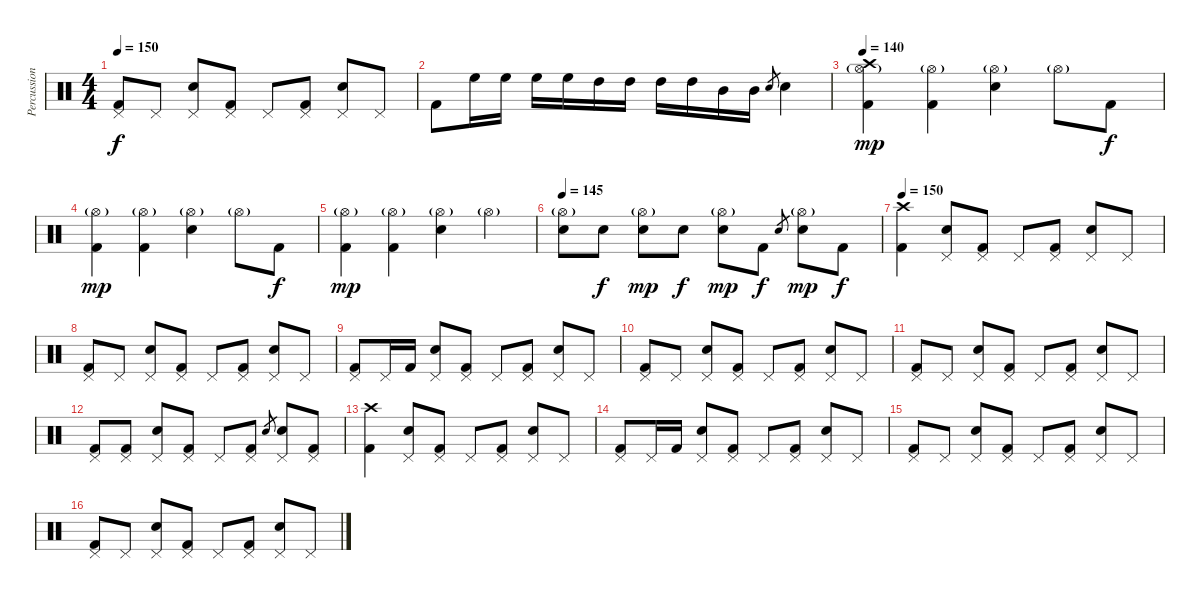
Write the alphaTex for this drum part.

\track ("Percussion" "Percussion") {instrument percussion}
\staff {score}
\articulation defaults
\ts (4 4)
\tempo 150
\clef neutral
\ks c
("Pedal Hi-Hat (hit)" "Kick (hit) 2").8{dy f} "Pedal Hi-Hat (hit)".8 ("Pedal Hi-Hat (hit)" "Snare (hit) 2").8 ("Pedal Hi-Hat (hit)" "Kick (hit) 2").8 "Pedal Hi-Hat (hit)".8 ("Pedal Hi-Hat (hit)" "Kick (hit) 2").8 ("Pedal Hi-Hat (hit)" "Snare (hit) 2").8 "Pedal Hi-Hat (hit)".8 |
"Kick (hit) 2".8 "High Floor Tom (hit)".16 "High Floor Tom (hit)".16 "High Floor Tom (hit)".16 "High Floor Tom (hit)".16 "High Tom (hit)".16 "High Tom (hit)".16 "High Tom (hit)".16 "High Tom (hit)".16 "Mid Tom (hit)".16 "Mid Tom (hit)".16 "Snare (hit) 2".8{gr} "Snare (hit) 2".4 |
\tempo 140
("Hi-Hat (open)"{g} "Crash high (hit)" "Kick (hit) 2").4{dy mp} ("Hi-Hat (open)"{g} "Kick (hit) 2").4 ("Hi-Hat (open)"{g} "Snare (hit) 2").4 "Hi-Hat (open)"{g}.8 "Kick (hit) 2".8{dy f} |
("Hi-Hat (open)"{g} "Kick (hit) 2").4{dy mp} ("Hi-Hat (open)"{g} "Kick (hit) 2").4 ("Hi-Hat (open)"{g} "Snare (hit) 2").4 "Hi-Hat (open)"{g}.8 "Kick (hit) 2".8{dy f} |
("Hi-Hat (open)"{g} "Kick (hit) 2").4{dy mp} ("Hi-Hat (open)"{g} "Kick (hit) 2").4 ("Hi-Hat (open)"{g} "Snare (hit) 2").4 "Hi-Hat (open)"{g}.4 |
\tempo 145
("Hi-Hat (open)"{g} "Snare (hit) 2").8 "Snare (hit) 2".8{dy f} ("Hi-Hat (open)"{g} "Snare (hit) 2").8{dy mp} "Snare (hit) 2".8{dy f} ("Hi-Hat (open)"{g} "Snare (hit) 2").8{dy mp} "Kick (hit) 2".8{dy f} "Snare (hit) 2".8{gr} ("Hi-Hat (open)"{g} "Snare (hit) 2").8{dy mp} "Kick (hit) 2".8{dy f} |
\tempo 150
("Crash high (hit)" "Kick (hit) 2").4 ("Pedal Hi-Hat (hit)" "Snare (hit) 2").8 ("Pedal Hi-Hat (hit)" "Kick (hit) 2").8 "Pedal Hi-Hat (hit)".8 ("Pedal Hi-Hat (hit)" "Kick (hit) 2").8 ("Pedal Hi-Hat (hit)" "Snare (hit) 2").8 "Pedal Hi-Hat (hit)".8 |
("Pedal Hi-Hat (hit)" "Kick (hit) 2").8 "Pedal Hi-Hat (hit)".8 ("Pedal Hi-Hat (hit)" "Snare (hit) 2").8 ("Pedal Hi-Hat (hit)" "Kick (hit) 2").8 "Pedal Hi-Hat (hit)".8 ("Pedal Hi-Hat (hit)" "Kick (hit) 2").8 ("Pedal Hi-Hat (hit)" "Snare (hit) 2").8 "Pedal Hi-Hat (hit)".8 |
("Pedal Hi-Hat (hit)" "Kick (hit) 2").8 "Pedal Hi-Hat (hit)".16 "Kick (hit) 2".16 ("Pedal Hi-Hat (hit)" "Snare (hit) 2").8 ("Pedal Hi-Hat (hit)" "Kick (hit) 2").8 "Pedal Hi-Hat (hit)".8 ("Pedal Hi-Hat (hit)" "Kick (hit) 2").8 ("Pedal Hi-Hat (hit)" "Snare (hit) 2").8 "Pedal Hi-Hat (hit)".8 |
("Pedal Hi-Hat (hit)" "Kick (hit) 2").8 "Pedal Hi-Hat (hit)".8 ("Pedal Hi-Hat (hit)" "Snare (hit) 2").8 ("Pedal Hi-Hat (hit)" "Kick (hit) 2").8 "Pedal Hi-Hat (hit)".8 ("Pedal Hi-Hat (hit)" "Kick (hit) 2").8 ("Pedal Hi-Hat (hit)" "Snare (hit) 2").8 "Pedal Hi-Hat (hit)".8 |
("Pedal Hi-Hat (hit)" "Kick (hit) 2").8 "Pedal Hi-Hat (hit)".8 ("Pedal Hi-Hat (hit)" "Snare (hit) 2").8 ("Pedal Hi-Hat (hit)" "Kick (hit) 2").8 "Pedal Hi-Hat (hit)".8 ("Pedal Hi-Hat (hit)" "Kick (hit) 2").8 ("Pedal Hi-Hat (hit)" "Snare (hit) 2").8 "Pedal Hi-Hat (hit)".8 |
("Pedal Hi-Hat (hit)" "Kick (hit) 2").8 ("Pedal Hi-Hat (hit)" "Kick (hit) 2").8 ("Pedal Hi-Hat (hit)" "Snare (hit) 2").8 ("Pedal Hi-Hat (hit)" "Kick (hit) 2").8 "Pedal Hi-Hat (hit)".8 ("Pedal Hi-Hat (hit)" "Kick (hit) 2").8 "Snare (hit) 2".8{gr} ("Pedal Hi-Hat (hit)" "Snare (hit) 2").8 ("Pedal Hi-Hat (hit)" "Kick (hit) 2").8 |
("Crash high (hit)" "Kick (hit) 2").4 ("Pedal Hi-Hat (hit)" "Snare (hit) 2").8 ("Pedal Hi-Hat (hit)" "Kick (hit) 2").8 "Pedal Hi-Hat (hit)".8 ("Pedal Hi-Hat (hit)" "Kick (hit) 2").8 ("Pedal Hi-Hat (hit)" "Snare (hit) 2").8 "Pedal Hi-Hat (hit)".8 |
("Pedal Hi-Hat (hit)" "Kick (hit) 2").8 "Pedal Hi-Hat (hit)".16 "Kick (hit) 2".16 ("Pedal Hi-Hat (hit)" "Snare (hit) 2").8 ("Pedal Hi-Hat (hit)" "Kick (hit) 2").8 "Pedal Hi-Hat (hit)".8 ("Pedal Hi-Hat (hit)" "Kick (hit) 2").8 ("Pedal Hi-Hat (hit)" "Snare (hit) 2").8 "Pedal Hi-Hat (hit)".8 |
("Pedal Hi-Hat (hit)" "Kick (hit) 2").8 "Pedal Hi-Hat (hit)".8 ("Pedal Hi-Hat (hit)" "Snare (hit) 2").8 ("Pedal Hi-Hat (hit)" "Kick (hit) 2").8 "Pedal Hi-Hat (hit)".8 ("Pedal Hi-Hat (hit)" "Kick (hit) 2").8 ("Pedal Hi-Hat (hit)" "Snare (hit) 2").8 "Pedal Hi-Hat (hit)".8 |
("Pedal Hi-Hat (hit)" "Kick (hit) 2").8 "Pedal Hi-Hat (hit)".8 ("Pedal Hi-Hat (hit)" "Snare (hit) 2").8 ("Pedal Hi-Hat (hit)" "Kick (hit) 2").8 "Pedal Hi-Hat (hit)".8 ("Pedal Hi-Hat (hit)" "Kick (hit) 2").8 ("Pedal Hi-Hat (hit)" "Snare (hit) 2").8 "Pedal Hi-Hat (hit)".8
